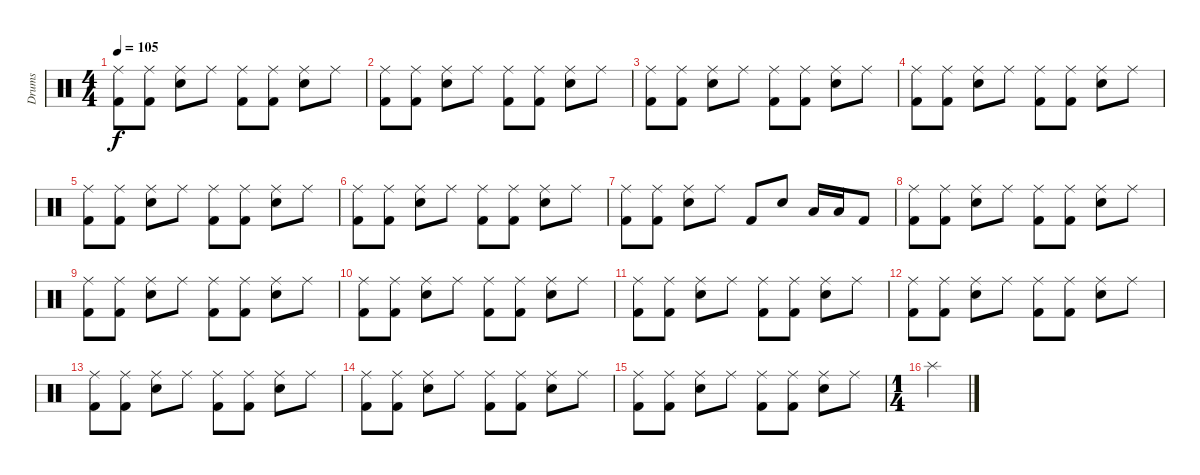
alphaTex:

\track ("Drums" "Drums") {instrument percussion}
\staff {score}
\articulation defaults
\ts (4 4)
\tempo 105
\clef neutral
\ks c
("Ride (middle)" "Kick (hit) 2").8{dy f} ("Ride (middle)" "Kick (hit) 2").8 ("Ride (middle)" "Snare (hit) 2").8 "Ride (middle)".8 ("Ride (middle)" "Kick (hit) 2").8 ("Ride (middle)" "Kick (hit) 2").8 ("Ride (middle)" "Snare (hit) 2").8 "Ride (middle)".8 |
("Ride (middle)" "Kick (hit) 2").8 ("Ride (middle)" "Kick (hit) 2").8 ("Ride (middle)" "Snare (hit) 2").8 "Ride (middle)".8 ("Ride (middle)" "Kick (hit) 2").8 ("Ride (middle)" "Kick (hit) 2").8 ("Ride (middle)" "Snare (hit) 2").8 "Ride (middle)".8 |
("Ride (middle)" "Kick (hit) 2").8 ("Ride (middle)" "Kick (hit) 2").8 ("Ride (middle)" "Snare (hit) 2").8 "Ride (middle)".8 ("Ride (middle)" "Kick (hit) 2").8 ("Ride (middle)" "Kick (hit) 2").8 ("Ride (middle)" "Snare (hit) 2").8 "Ride (middle)".8 |
("Ride (middle)" "Kick (hit) 2").8 ("Ride (middle)" "Kick (hit) 2").8 ("Ride (middle)" "Snare (hit) 2").8 "Ride (middle)".8 ("Ride (middle)" "Kick (hit) 2").8 ("Ride (middle)" "Kick (hit) 2").8 ("Ride (middle)" "Snare (hit) 2").8 "Ride (middle)".8 |
("Ride (middle)" "Kick (hit) 2").8 ("Ride (middle)" "Kick (hit) 2").8 ("Ride (middle)" "Snare (hit) 2").8 "Ride (middle)".8 ("Ride (middle)" "Kick (hit) 2").8 ("Ride (middle)" "Kick (hit) 2").8 ("Ride (middle)" "Snare (hit) 2").8 "Ride (middle)".8 |
("Ride (middle)" "Kick (hit) 2").8 ("Ride (middle)" "Kick (hit) 2").8 ("Ride (middle)" "Snare (hit) 2").8 "Ride (middle)".8 ("Ride (middle)" "Kick (hit) 2").8 ("Ride (middle)" "Kick (hit) 2").8 ("Ride (middle)" "Snare (hit) 2").8 "Ride (middle)".8 |
("Ride (middle)" "Kick (hit) 2").8 ("Ride (middle)" "Kick (hit) 2").8 ("Ride (middle)" "Snare (hit) 2").8 "Ride (middle)".8 "Kick (hit) 2".8 "Snare (hit) 2".8 "Low Tom (hit)".16 "Low Tom (hit)".16 "Kick (hit) 2".8 |
("Ride (middle)" "Kick (hit) 2").8 ("Ride (middle)" "Kick (hit) 2").8 ("Ride (middle)" "Snare (hit) 2").8 "Ride (middle)".8 ("Ride (middle)" "Kick (hit) 2").8 ("Ride (middle)" "Kick (hit) 2").8 ("Ride (middle)" "Snare (hit) 2").8 "Ride (middle)".8 |
("Ride (middle)" "Kick (hit) 2").8 ("Ride (middle)" "Kick (hit) 2").8 ("Ride (middle)" "Snare (hit) 2").8 "Ride (middle)".8 ("Ride (middle)" "Kick (hit) 2").8 ("Ride (middle)" "Kick (hit) 2").8 ("Ride (middle)" "Snare (hit) 2").8 "Ride (middle)".8 |
("Ride (middle)" "Kick (hit) 2").8 ("Ride (middle)" "Kick (hit) 2").8 ("Ride (middle)" "Snare (hit) 2").8 "Ride (middle)".8 ("Ride (middle)" "Kick (hit) 2").8 ("Ride (middle)" "Kick (hit) 2").8 ("Ride (middle)" "Snare (hit) 2").8 "Ride (middle)".8 |
("Ride (middle)" "Kick (hit) 2").8 ("Ride (middle)" "Kick (hit) 2").8 ("Ride (middle)" "Snare (hit) 2").8 "Ride (middle)".8 ("Ride (middle)" "Kick (hit) 2").8 ("Ride (middle)" "Kick (hit) 2").8 ("Ride (middle)" "Snare (hit) 2").8 "Ride (middle)".8 |
("Ride (middle)" "Kick (hit) 2").8 ("Ride (middle)" "Kick (hit) 2").8 ("Ride (middle)" "Snare (hit) 2").8 "Ride (middle)".8 ("Ride (middle)" "Kick (hit) 2").8 ("Ride (middle)" "Kick (hit) 2").8 ("Ride (middle)" "Snare (hit) 2").8 "Ride (middle)".8 |
("Ride (middle)" "Kick (hit) 2").8 ("Ride (middle)" "Kick (hit) 2").8 ("Ride (middle)" "Snare (hit) 2").8 "Ride (middle)".8 ("Ride (middle)" "Kick (hit) 2").8 ("Ride (middle)" "Kick (hit) 2").8 ("Ride (middle)" "Snare (hit) 2").8 "Ride (middle)".8 |
("Ride (middle)" "Kick (hit) 2").8 ("Ride (middle)" "Kick (hit) 2").8 ("Ride (middle)" "Snare (hit) 2").8 "Ride (middle)".8 ("Ride (middle)" "Kick (hit) 2").8 ("Ride (middle)" "Kick (hit) 2").8 ("Ride (middle)" "Snare (hit) 2").8 "Ride (middle)".8 |
("Ride (middle)" "Kick (hit) 2").8 ("Ride (middle)" "Kick (hit) 2").8 ("Ride (middle)" "Snare (hit) 2").8 "Ride (middle)".8 ("Ride (middle)" "Kick (hit) 2").8 ("Ride (middle)" "Kick (hit) 2").8 ("Ride (middle)" "Snare (hit) 2").8 "Ride (middle)".8 |
\ts (1 4)
"Splash (hit)".4
